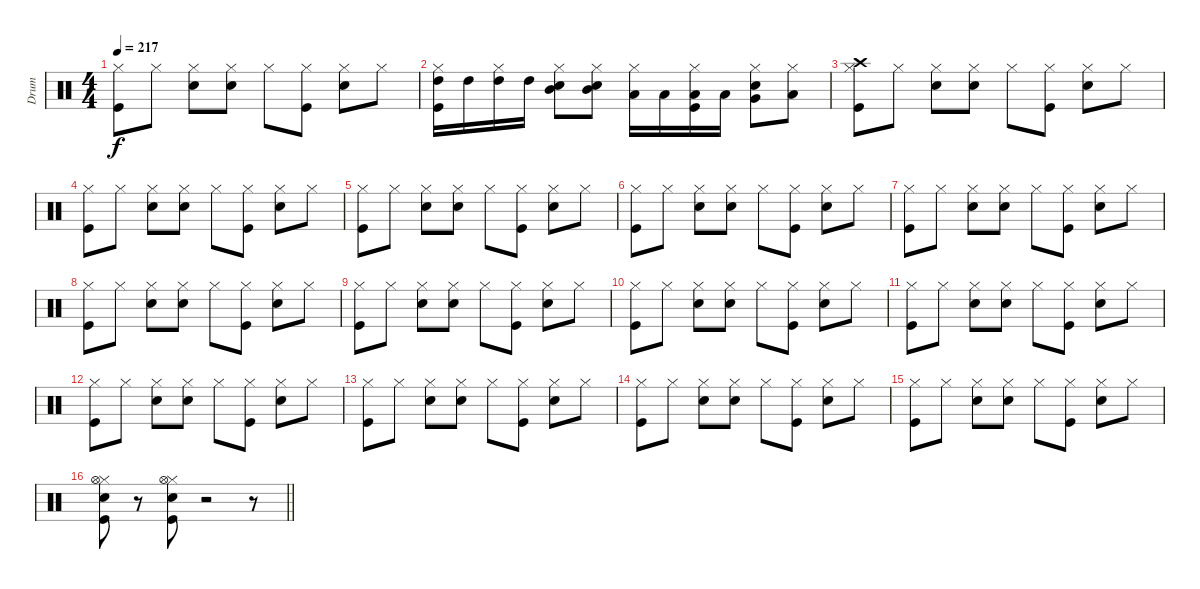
\track ("Drum" "Drum") {instrument percussion}
\staff {score}
\articulation defaults
\ts (4 4)
\tempo 217
\clef neutral
\ks c
("Kick (hit)" "Hi-Hat (closed)").8{dy f} "Hi-Hat (closed)".8 ("Snare (hit) 2" "Hi-Hat (closed)").8 ("Snare (hit) 2" "Hi-Hat (closed)").8 "Hi-Hat (closed)".8 ("Kick (hit)" "Hi-Hat (closed)").8 ("Snare (hit) 2" "Hi-Hat (closed)").8 "Hi-Hat (closed)".8 |
("Kick (hit)" "Hi-Hat (closed)" "High Tom (hit)").16 "High Tom (hit)".16 ("Hi-Hat (closed)" "High Tom (hit)").16 "High Tom (hit)".16 ("Snare (hit) 2" "Hi-Hat (closed)" "Mid Tom (hit)").8 ("Snare (hit) 2" "Hi-Hat (closed)" "Mid Tom (hit)").8 ("Hi-Hat (closed)" "Low Tom (hit)").16 "Low Tom (hit)".16 ("Kick (hit)" "Hi-Hat (closed)" "Low Tom (hit)").16 "Low Tom (hit)".16 ("Snare (hit) 2" "Hi-Hat (closed)" "Very Low Tom (hit)").8 ("Hi-Hat (closed)" "Low Floor Tom (hit)").8 |
("Kick (hit)" "Hi-Hat (closed)" "Crash high (hit)").8 "Hi-Hat (closed)".8 ("Snare (hit) 2" "Hi-Hat (closed)").8 ("Snare (hit) 2" "Hi-Hat (closed)").8 "Hi-Hat (closed)".8 ("Kick (hit)" "Hi-Hat (closed)").8 ("Snare (hit) 2" "Hi-Hat (closed)").8 "Hi-Hat (closed)".8 |
("Kick (hit)" "Hi-Hat (closed)").8 "Hi-Hat (closed)".8 ("Snare (hit) 2" "Hi-Hat (closed)").8 ("Snare (hit) 2" "Hi-Hat (closed)").8 "Hi-Hat (closed)".8 ("Kick (hit)" "Hi-Hat (closed)").8 ("Snare (hit) 2" "Hi-Hat (closed)").8 "Hi-Hat (closed)".8 |
("Kick (hit)" "Hi-Hat (closed)").8 "Hi-Hat (closed)".8 ("Snare (hit) 2" "Hi-Hat (closed)").8 ("Snare (hit) 2" "Hi-Hat (closed)").8 "Hi-Hat (closed)".8 ("Kick (hit)" "Hi-Hat (closed)").8 ("Snare (hit) 2" "Hi-Hat (closed)").8 "Hi-Hat (closed)".8 |
("Kick (hit)" "Hi-Hat (closed)").8 "Hi-Hat (closed)".8 ("Snare (hit) 2" "Hi-Hat (closed)").8 ("Snare (hit) 2" "Hi-Hat (closed)").8 "Hi-Hat (closed)".8 ("Kick (hit)" "Hi-Hat (closed)").8 ("Snare (hit) 2" "Hi-Hat (closed)").8 "Hi-Hat (closed)".8 |
("Kick (hit)" "Hi-Hat (closed)").8 "Hi-Hat (closed)".8 ("Snare (hit) 2" "Hi-Hat (closed)").8 ("Snare (hit) 2" "Hi-Hat (closed)").8 "Hi-Hat (closed)".8 ("Kick (hit)" "Hi-Hat (closed)").8 ("Snare (hit) 2" "Hi-Hat (closed)").8 "Hi-Hat (closed)".8 |
("Kick (hit)" "Hi-Hat (closed)").8 "Hi-Hat (closed)".8 ("Snare (hit) 2" "Hi-Hat (closed)").8 ("Snare (hit) 2" "Hi-Hat (closed)").8 "Hi-Hat (closed)".8 ("Kick (hit)" "Hi-Hat (closed)").8 ("Snare (hit) 2" "Hi-Hat (closed)").8 "Hi-Hat (closed)".8 |
("Kick (hit)" "Hi-Hat (closed)").8 "Hi-Hat (closed)".8 ("Snare (hit) 2" "Hi-Hat (closed)").8 ("Snare (hit) 2" "Hi-Hat (closed)").8 "Hi-Hat (closed)".8 ("Kick (hit)" "Hi-Hat (closed)").8 ("Snare (hit) 2" "Hi-Hat (closed)").8 "Hi-Hat (closed)".8 |
("Kick (hit)" "Hi-Hat (closed)").8 "Hi-Hat (closed)".8 ("Snare (hit) 2" "Hi-Hat (closed)").8 ("Snare (hit) 2" "Hi-Hat (closed)").8 "Hi-Hat (closed)".8 ("Kick (hit)" "Hi-Hat (closed)").8 ("Snare (hit) 2" "Hi-Hat (closed)").8 "Hi-Hat (closed)".8 |
("Kick (hit)" "Hi-Hat (closed)").8 "Hi-Hat (closed)".8 ("Snare (hit) 2" "Hi-Hat (closed)").8 ("Snare (hit) 2" "Hi-Hat (closed)").8 "Hi-Hat (closed)".8 ("Kick (hit)" "Hi-Hat (closed)").8 ("Snare (hit) 2" "Hi-Hat (closed)").8 "Hi-Hat (closed)".8 |
("Kick (hit)" "Hi-Hat (closed)").8 "Hi-Hat (closed)".8 ("Snare (hit) 2" "Hi-Hat (closed)").8 ("Snare (hit) 2" "Hi-Hat (closed)").8 "Hi-Hat (closed)".8 ("Kick (hit)" "Hi-Hat (closed)").8 ("Snare (hit) 2" "Hi-Hat (closed)").8 "Hi-Hat (closed)".8 |
("Kick (hit)" "Hi-Hat (closed)").8 "Hi-Hat (closed)".8 ("Snare (hit) 2" "Hi-Hat (closed)").8 ("Snare (hit) 2" "Hi-Hat (closed)").8 "Hi-Hat (closed)".8 ("Kick (hit)" "Hi-Hat (closed)").8 ("Snare (hit) 2" "Hi-Hat (closed)").8 "Hi-Hat (closed)".8 |
("Kick (hit)" "Hi-Hat (closed)").8 "Hi-Hat (closed)".8 ("Snare (hit) 2" "Hi-Hat (closed)").8 ("Snare (hit) 2" "Hi-Hat (closed)").8 "Hi-Hat (closed)".8 ("Kick (hit)" "Hi-Hat (closed)").8 ("Snare (hit) 2" "Hi-Hat (closed)").8 "Hi-Hat (closed)".8 |
("Kick (hit)" "Hi-Hat (closed)").8 "Hi-Hat (closed)".8 ("Snare (hit) 2" "Hi-Hat (closed)").8 ("Snare (hit) 2" "Hi-Hat (closed)").8 "Hi-Hat (closed)".8 ("Kick (hit)" "Hi-Hat (closed)").8 ("Snare (hit) 2" "Hi-Hat (closed)").8 "Hi-Hat (closed)".8 |
\barLineRight lightlight
("Kick (hit)" "Snare (hit) 2" "Hi-Hat (closed)" "Hi-Hat (open)").8 r.8 ("Kick (hit)" "Snare (hit) 2" "Hi-Hat (closed)" "Hi-Hat (open)").8 r.2 r.8
